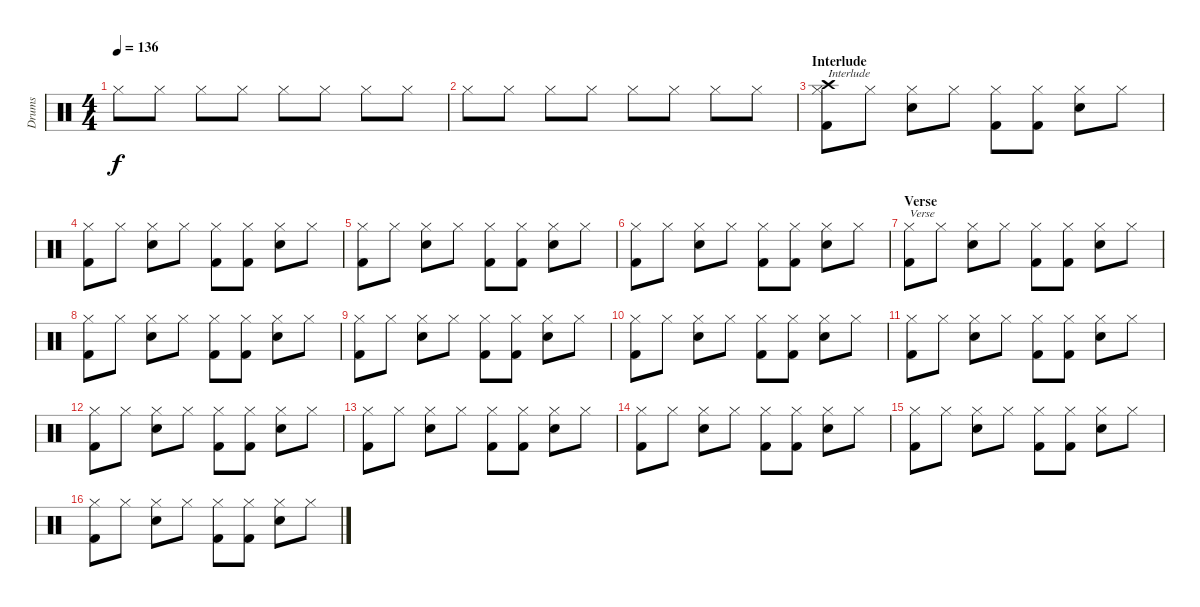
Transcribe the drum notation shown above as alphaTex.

\track ("Drums" "Drums") {instrument percussion}
\staff {score}
\articulation defaults
\ts (4 4)
\tempo 136
\clef neutral
\ks c "Hi-Hat (closed)".8{dy f} "Hi-Hat (closed)".8 "Hi-Hat (closed)".8 "Hi-Hat (closed)".8 "Hi-Hat (closed)".8 "Hi-Hat (closed)".8 "Hi-Hat (closed)".8 "Hi-Hat (closed)".8
|
"Hi-Hat (closed)".8 "Hi-Hat (closed)".8 "Hi-Hat (closed)".8 "Hi-Hat (closed)".8 "Hi-Hat (closed)".8 "Hi-Hat (closed)".8 "Hi-Hat (closed)".8 "Hi-Hat (closed)".8 |
\section ("" "Interlude")
("Crash high (hit)" "Hi-Hat (closed)" "Kick (hit) 2").8{txt "Interlude"} "Hi-Hat (closed)".8 ("Snare (hit) 2" "Hi-Hat (closed)").8 "Hi-Hat (closed)".8 ("Hi-Hat (closed)" "Kick (hit) 2").8 ("Hi-Hat (closed)" "Kick (hit) 2").8 ("Snare (hit) 2" "Hi-Hat (closed)").8 "Hi-Hat (closed)".8 |
("Hi-Hat (closed)" "Kick (hit) 2").8 "Hi-Hat (closed)".8 ("Snare (hit) 2" "Hi-Hat (closed)").8 "Hi-Hat (closed)".8 ("Hi-Hat (closed)" "Kick (hit) 2").8 ("Hi-Hat (closed)" "Kick (hit) 2").8 ("Snare (hit) 2" "Hi-Hat (closed)").8 "Hi-Hat (closed)".8 |
("Hi-Hat (closed)" "Kick (hit) 2").8 "Hi-Hat (closed)".8 ("Snare (hit) 2" "Hi-Hat (closed)").8 "Hi-Hat (closed)".8 ("Hi-Hat (closed)" "Kick (hit) 2").8 ("Hi-Hat (closed)" "Kick (hit) 2").8 ("Snare (hit) 2" "Hi-Hat (closed)").8 "Hi-Hat (closed)".8 |
("Hi-Hat (closed)" "Kick (hit) 2").8 "Hi-Hat (closed)".8 ("Snare (hit) 2" "Hi-Hat (closed)").8 "Hi-Hat (closed)".8 ("Hi-Hat (closed)" "Kick (hit) 2").8 ("Hi-Hat (closed)" "Kick (hit) 2").8 ("Snare (hit) 2" "Hi-Hat (closed)").8 "Hi-Hat (closed)".8 |
\section ("" "Verse")
("Hi-Hat (closed)" "Kick (hit) 2").8{txt "Verse"} "Hi-Hat (closed)".8 ("Snare (hit) 2" "Hi-Hat (closed)").8 "Hi-Hat (closed)".8 ("Hi-Hat (closed)" "Kick (hit) 2").8 ("Hi-Hat (closed)" "Kick (hit) 2").8 ("Snare (hit) 2" "Hi-Hat (closed)").8 "Hi-Hat (closed)".8 |
("Hi-Hat (closed)" "Kick (hit) 2").8 "Hi-Hat (closed)".8 ("Snare (hit) 2" "Hi-Hat (closed)").8 "Hi-Hat (closed)".8 ("Hi-Hat (closed)" "Kick (hit) 2").8 ("Hi-Hat (closed)" "Kick (hit) 2").8 ("Snare (hit) 2" "Hi-Hat (closed)").8 "Hi-Hat (closed)".8 |
("Hi-Hat (closed)" "Kick (hit) 2").8 "Hi-Hat (closed)".8 ("Snare (hit) 2" "Hi-Hat (closed)").8 "Hi-Hat (closed)".8 ("Hi-Hat (closed)" "Kick (hit) 2").8 ("Hi-Hat (closed)" "Kick (hit) 2").8 ("Snare (hit) 2" "Hi-Hat (closed)").8 "Hi-Hat (closed)".8 |
("Hi-Hat (closed)" "Kick (hit) 2").8 "Hi-Hat (closed)".8 ("Snare (hit) 2" "Hi-Hat (closed)").8 "Hi-Hat (closed)".8 ("Hi-Hat (closed)" "Kick (hit) 2").8 ("Hi-Hat (closed)" "Kick (hit) 2").8 ("Snare (hit) 2" "Hi-Hat (closed)").8 "Hi-Hat (closed)".8 |
("Hi-Hat (closed)" "Kick (hit) 2").8 "Hi-Hat (closed)".8 ("Snare (hit) 2" "Hi-Hat (closed)").8 "Hi-Hat (closed)".8 ("Hi-Hat (closed)" "Kick (hit) 2").8 ("Hi-Hat (closed)" "Kick (hit) 2").8 ("Snare (hit) 2" "Hi-Hat (closed)").8 "Hi-Hat (closed)".8 |
("Hi-Hat (closed)" "Kick (hit) 2").8 "Hi-Hat (closed)".8 ("Snare (hit) 2" "Hi-Hat (closed)").8 "Hi-Hat (closed)".8 ("Hi-Hat (closed)" "Kick (hit) 2").8 ("Hi-Hat (closed)" "Kick (hit) 2").8 ("Snare (hit) 2" "Hi-Hat (closed)").8 "Hi-Hat (closed)".8 |
("Hi-Hat (closed)" "Kick (hit) 2").8 "Hi-Hat (closed)".8 ("Snare (hit) 2" "Hi-Hat (closed)").8 "Hi-Hat (closed)".8 ("Hi-Hat (closed)" "Kick (hit) 2").8 ("Hi-Hat (closed)" "Kick (hit) 2").8 ("Snare (hit) 2" "Hi-Hat (closed)").8 "Hi-Hat (closed)".8 |
("Hi-Hat (closed)" "Kick (hit) 2").8 "Hi-Hat (closed)".8 ("Snare (hit) 2" "Hi-Hat (closed)").8 "Hi-Hat (closed)".8 ("Hi-Hat (closed)" "Kick (hit) 2").8 ("Hi-Hat (closed)" "Kick (hit) 2").8 ("Snare (hit) 2" "Hi-Hat (closed)").8 "Hi-Hat (closed)".8 |
("Hi-Hat (closed)" "Kick (hit) 2").8 "Hi-Hat (closed)".8 ("Snare (hit) 2" "Hi-Hat (closed)").8 "Hi-Hat (closed)".8 ("Hi-Hat (closed)" "Kick (hit) 2").8 ("Hi-Hat (closed)" "Kick (hit) 2").8 ("Snare (hit) 2" "Hi-Hat (closed)").8 "Hi-Hat (closed)".8 |
("Hi-Hat (closed)" "Kick (hit) 2").8 "Hi-Hat (closed)".8 ("Snare (hit) 2" "Hi-Hat (closed)").8 "Hi-Hat (closed)".8 ("Hi-Hat (closed)" "Kick (hit) 2").8 ("Hi-Hat (closed)" "Kick (hit) 2").8 ("Snare (hit) 2" "Hi-Hat (closed)").8 "Hi-Hat (closed)".8
